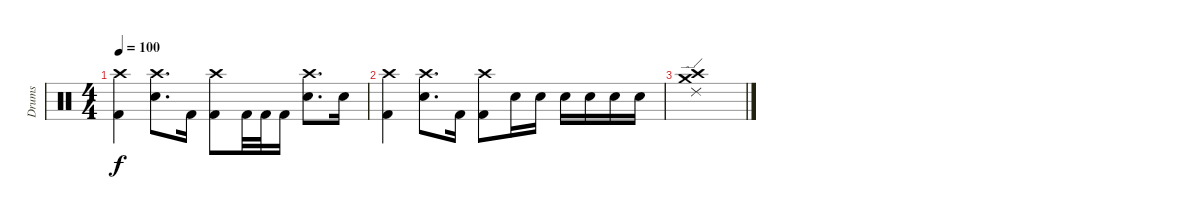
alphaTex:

\track ("Drums" "Drums") {instrument percussion}
\staff {score}
\articulation defaults
\ts (4 4)
\tempo 100
\clef neutral
\ks c
("Crash high (hit)" "Kick (hit) 2").4{dy f} ("Crash high (hit)" "Electric Snare (hit)").8{d} "Kick (hit) 2".16 ("Crash high (hit)" "Kick (hit) 2").8 "Kick (hit) 2".32 "Kick (hit) 2".32 "Kick (hit) 2".16 ("Crash high (hit)" "Electric Snare (hit)").8{d} "Electric Snare (hit)".16 |
("Crash high (hit)" "Kick (hit) 2").4 ("Crash high (hit)" "Electric Snare (hit)").8{d} "Kick (hit) 2".16 ("Crash high (hit)" "Kick (hit) 2").8 "Electric Snare (hit)".16 "Electric Snare (hit)".16 "Electric Snare (hit)".16 "Electric Snare (hit)".16 "Electric Snare (hit)".16 "Electric Snare (hit)".16 |
("Crash high (hit)" "Crash medium (hit)" "Ride (edge) 2").1
